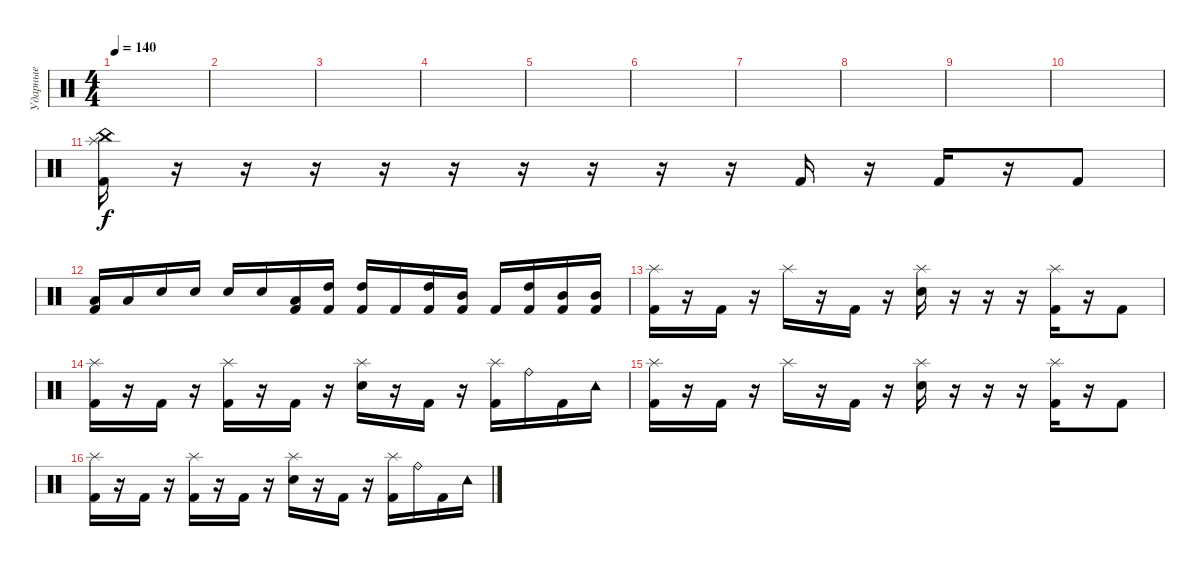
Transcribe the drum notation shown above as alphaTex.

\track ("Ударные" "Ударные") {instrument percussion}
\staff {score}
\articulation defaults
\ts (4 4)
\tempo 140
\clef neutral
\ks c
|
|
|
|
|
|
|
|
|
|
("China (hit)" "Splash (hit)" "Kick (hit) 2").16 r.16 r.16 r.16 r.16 r.16 r.16 r.16 r.16 r.16 "Kick (hit) 2".16 r.16 "Kick (hit) 2".16 r.16 "Kick (hit) 2".8 |
("Low Tom (hit)" "Kick (hit) 2").16 "Low Tom (hit)".16 "Electric Snare (hit)".16 "Electric Snare (hit)".16 "Electric Snare (hit)".16 "Electric Snare (hit)".16 ("Low Tom (hit)" "Kick (hit) 2").16 ("High Tom (hit)" "Kick (hit) 2").16 ("High Tom (hit)" "Kick (hit) 2").16 "Kick (hit) 2".16 ("High Tom (hit)" "Kick (hit) 2").16 ("Mid Tom (hit)" "Kick (hit) 2").16 "Kick (hit) 2".16 ("High Tom (hit)" "Kick (hit) 2").16 ("Mid Tom (hit)" "Kick (hit) 2").16 ("Mid Tom (hit)" "Kick (hit) 2").16 |
("Splash (hit)" "Kick (hit) 2").16 r.16 "Kick (hit) 2".16 r.16 "Splash (hit)".16 r.16 "Kick (hit) 2".16 r.16 ("Splash (hit)" "Electric Snare (hit)").16 r.16 r.16 r.16 ("Splash (hit)" "Kick (hit) 2").16 r.16 "Kick (hit) 2".8 |
("Splash (hit)" "Kick (hit) 2").16 r.16 "Kick (hit) 2".16 r.16 ("Splash (hit)" "Kick (hit) 2").16 r.16 "Kick (hit) 2".16 r.16 ("Splash (hit)" "Electric Snare (hit)").16 r.16 "Kick (hit) 2".16 r.16 ("Splash (hit)" "Kick (hit) 2").16 "Ride (bell)".16 "Kick (hit) 2".16 "Tambourine (hit)".16 |
("Splash (hit)" "Kick (hit) 2").16 r.16 "Kick (hit) 2".16 r.16 "Splash (hit)".16 r.16 "Kick (hit) 2".16 r.16 ("Splash (hit)" "Electric Snare (hit)").16 r.16 r.16 r.16 ("Splash (hit)" "Kick (hit) 2").16 r.16 "Kick (hit) 2".8 |
("Splash (hit)" "Kick (hit) 2").16 r.16 "Kick (hit) 2".16 r.16 ("Splash (hit)" "Kick (hit) 2").16 r.16 "Kick (hit) 2".16 r.16 ("Splash (hit)" "Electric Snare (hit)").16 r.16 "Kick (hit) 2".16 r.16 ("Splash (hit)" "Kick (hit) 2").16 "Ride (bell)".16 "Kick (hit) 2".16 "Tambourine (hit)".16
